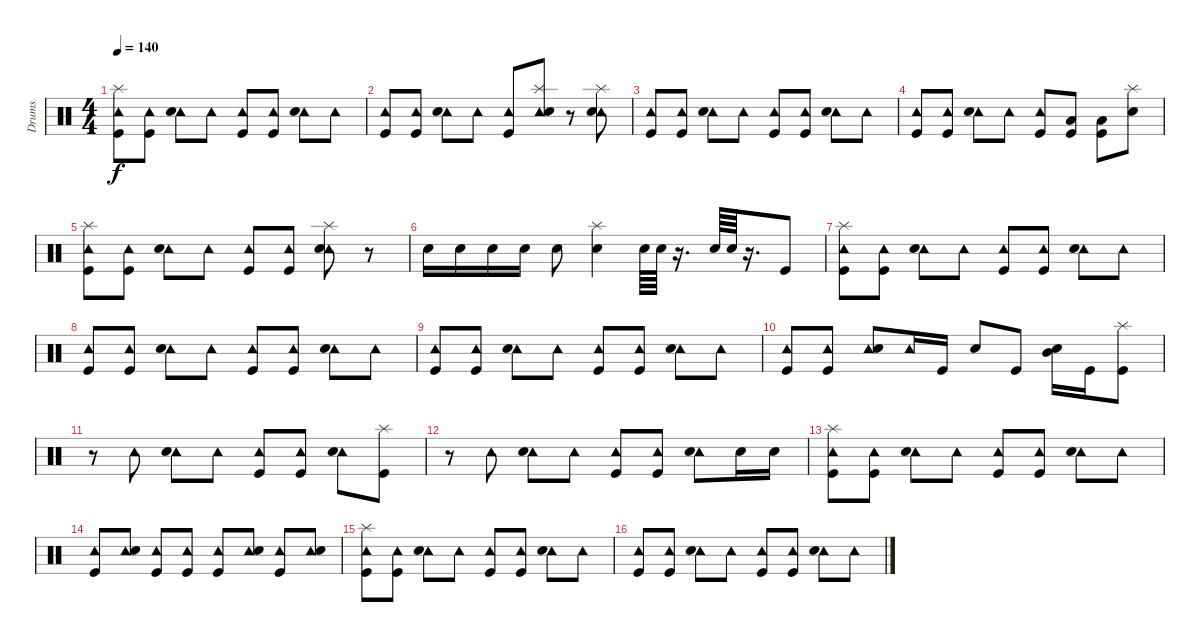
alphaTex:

\track ("Drums" "Drums") {instrument percussion}
\staff {score}
\articulation defaults
\ts (4 4)
\tempo 140
\clef neutral
\ks c
("Tambourine (hit)" "Kick (hit)" "Splash (hit)").8{dy f} ("Tambourine (hit)" "Kick (hit)").8 ("Tambourine (hit)" "Snare (hit) 2").8 "Tambourine (hit)".8 ("Tambourine (hit)" "Kick (hit)").8 ("Tambourine (hit)" "Kick (hit)").8 ("Tambourine (hit)" "Snare (hit) 2").8 "Tambourine (hit)".8 |
("Tambourine (hit)" "Kick (hit)").8 ("Tambourine (hit)" "Kick (hit)").8 ("Tambourine (hit)" "Snare (hit) 2").8 "Tambourine (hit)".8 ("Tambourine (hit)" "Kick (hit)").8 ("Tambourine (hit)" "Snare (hit) 2" "Splash (hit)").8 r.8 ("Tambourine (hit)" "Snare (hit) 2" "Splash (hit)").8 |
("Tambourine (hit)" "Kick (hit)").8 ("Tambourine (hit)" "Kick (hit)").8 ("Tambourine (hit)" "Snare (hit) 2").8 "Tambourine (hit)".8 ("Tambourine (hit)" "Kick (hit)").8 ("Tambourine (hit)" "Kick (hit)").8 ("Tambourine (hit)" "Snare (hit) 2").8 "Tambourine (hit)".8 |
("Tambourine (hit)" "Kick (hit)").8 ("Tambourine (hit)" "Kick (hit)").8 ("Tambourine (hit)" "Snare (hit) 2").8 "Tambourine (hit)".8 ("Tambourine (hit)" "Kick (hit)").8 ("Kick (hit)" "Low Tom (hit)").8 ("Kick (hit)" "Low Tom (hit)").8 ("Snare (hit) 2" "Splash (hit)").8 |
("Tambourine (hit)" "Kick (hit)" "Splash (hit)").8 ("Tambourine (hit)" "Kick (hit)").8 ("Tambourine (hit)" "Snare (hit) 2").8 "Tambourine (hit)".8 ("Tambourine (hit)" "Kick (hit)").8 ("Tambourine (hit)" "Kick (hit)").8 ("Tambourine (hit)" "Snare (hit) 2" "Splash (hit)").8 r.8 |
"Snare (hit) 2".16 "Snare (hit) 2".16 "Snare (hit) 2".16 "Snare (hit) 2".16 "Snare (hit) 2".8 ("Snare (hit) 2" "Splash (hit)").4 "Snare (hit) 2".64 "Snare (hit) 2".64 r.16{d} "Snare (hit) 2".64 "Snare (hit) 2".64 r.16{d} "Kick (hit)".8 |
("Tambourine (hit)" "Kick (hit)" "Splash (hit)").8 ("Tambourine (hit)" "Kick (hit)").8 ("Tambourine (hit)" "Snare (hit) 2").8 "Tambourine (hit)".8 ("Tambourine (hit)" "Kick (hit)").8 ("Tambourine (hit)" "Kick (hit)").8 ("Tambourine (hit)" "Snare (hit) 2").8 "Tambourine (hit)".8 |
("Tambourine (hit)" "Kick (hit)").8 ("Tambourine (hit)" "Kick (hit)").8 ("Tambourine (hit)" "Snare (hit) 2").8 "Tambourine (hit)".8 ("Tambourine (hit)" "Kick (hit)").8 ("Tambourine (hit)" "Kick (hit)").8 ("Tambourine (hit)" "Snare (hit) 2").8 "Tambourine (hit)".8 |
("Tambourine (hit)" "Kick (hit)").8 ("Tambourine (hit)" "Kick (hit)").8 ("Tambourine (hit)" "Snare (hit) 2").8 "Tambourine (hit)".8 ("Tambourine (hit)" "Kick (hit)").8 ("Tambourine (hit)" "Kick (hit)").8 ("Tambourine (hit)" "Snare (hit) 2").8 "Tambourine (hit)".8 |
("Tambourine (hit)" "Kick (hit)").8 ("Tambourine (hit)" "Kick (hit)").8 ("Tambourine (hit)" "Snare (hit) 2").8 "Tambourine (hit)".16 "Kick (hit)".16 "Snare (hit) 2".8 "Kick (hit)".8 ("Snare (hit) 2" "Mid Tom (hit)").16 "Kick (hit)".16 ("Kick (hit)" "Splash (hit)").8 |
r.8 "Tambourine (hit)".8 ("Tambourine (hit)" "Snare (hit) 2").8 "Tambourine (hit)".8 ("Tambourine (hit)" "Kick (hit)").8 ("Tambourine (hit)" "Kick (hit)").8 ("Tambourine (hit)" "Snare (hit) 2").8 ("Kick (hit)" "Splash (hit)").8 |
r.8 "Tambourine (hit)".8 ("Tambourine (hit)" "Snare (hit) 2").8 "Tambourine (hit)".8 ("Tambourine (hit)" "Kick (hit)").8 ("Tambourine (hit)" "Kick (hit)").8 ("Tambourine (hit)" "Snare (hit) 2").8 "Snare (hit) 2".16 "Snare (hit) 2".16 |
("Tambourine (hit)" "Kick (hit)" "Splash (hit)").8 ("Tambourine (hit)" "Kick (hit)").8 ("Tambourine (hit)" "Snare (hit) 2").8 "Tambourine (hit)".8 ("Tambourine (hit)" "Kick (hit)").8 ("Tambourine (hit)" "Kick (hit)").8 ("Tambourine (hit)" "Snare (hit) 2").8 "Tambourine (hit)".8 |
("Tambourine (hit)" "Kick (hit)").8 ("Tambourine (hit)" "Snare (hit) 2").8 ("Tambourine (hit)" "Kick (hit)").8 ("Tambourine (hit)" "Kick (hit)").8 ("Tambourine (hit)" "Kick (hit)").8 ("Tambourine (hit)" "Snare (hit) 2").8 ("Tambourine (hit)" "Kick (hit)").8 ("Tambourine (hit)" "Snare (hit) 2").8 |
("Tambourine (hit)" "Kick (hit)" "Splash (hit)").8 ("Tambourine (hit)" "Kick (hit)").8 ("Tambourine (hit)" "Snare (hit) 2").8 "Tambourine (hit)".8 ("Tambourine (hit)" "Kick (hit)").8 ("Tambourine (hit)" "Kick (hit)").8 ("Tambourine (hit)" "Snare (hit) 2").8 "Tambourine (hit)".8 |
("Tambourine (hit)" "Kick (hit)").8 ("Tambourine (hit)" "Kick (hit)").8 ("Tambourine (hit)" "Snare (hit) 2").8 "Tambourine (hit)".8 ("Tambourine (hit)" "Kick (hit)").8 ("Tambourine (hit)" "Kick (hit)").8 ("Tambourine (hit)" "Snare (hit) 2").8 "Tambourine (hit)".8
